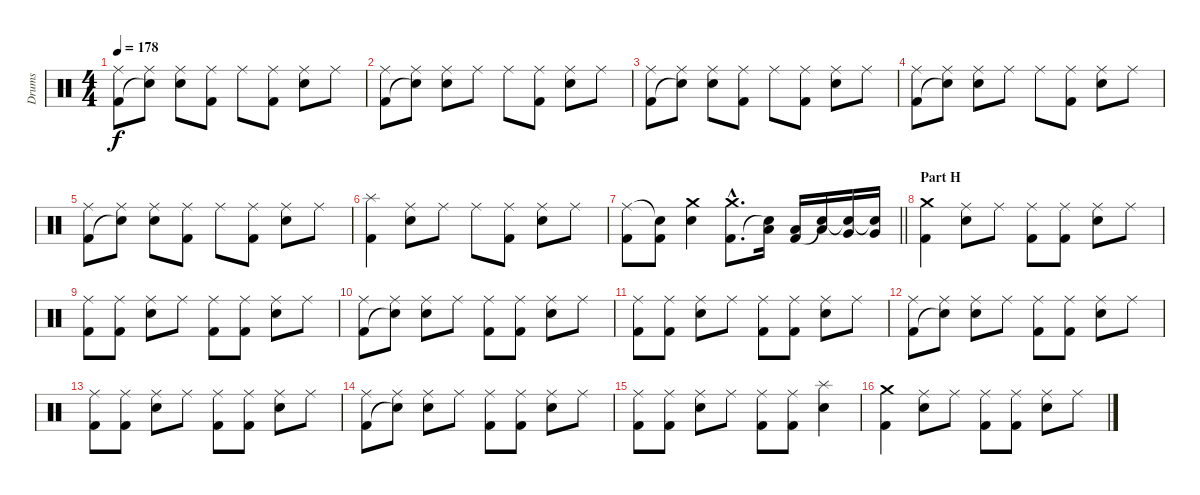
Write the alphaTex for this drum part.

\track ("Drums" "Drums") {instrument percussion}
\staff {score}
\articulation defaults
\ts (4 4)
\tempo 178
\clef neutral
\ks c
("Ride (middle)" "Kick (hit) 2").8{dy f} ("Ride (middle)" "Snare (hit)"{t}).8 ("Ride (middle)" "Electric Snare (hit)").8 ("Ride (middle)" "Kick (hit) 2").8 "Ride (middle)".8 ("Ride (middle)" "Kick (hit) 2").8 ("Ride (middle)" "Electric Snare (hit)").8 "Ride (middle)".8 |
("Ride (middle)" "Kick (hit) 2").8 ("Ride (middle)" "Snare (hit)"{t}).8 ("Ride (middle)" "Electric Snare (hit)").8 "Ride (middle)".8 "Ride (middle)".8 ("Ride (middle)" "Kick (hit) 2").8 ("Ride (middle)" "Electric Snare (hit)").8 "Ride (middle)".8 |
("Ride (middle)" "Kick (hit) 2").8 ("Ride (middle)" "Snare (hit)"{t}).8 ("Ride (middle)" "Electric Snare (hit)").8 ("Ride (middle)" "Kick (hit) 2").8 "Ride (middle)".8 ("Ride (middle)" "Kick (hit) 2").8 ("Ride (middle)" "Electric Snare (hit)").8 "Ride (middle)".8 |
("Ride (middle)" "Kick (hit) 2").8 ("Ride (middle)" "Snare (hit)"{t}).8 ("Ride (middle)" "Electric Snare (hit)").8 "Ride (middle)".8 "Ride (middle)".8 ("Ride (middle)" "Kick (hit) 2").8 ("Ride (middle)" "Electric Snare (hit)").8 "Ride (middle)".8 |
("Ride (middle)" "Kick (hit) 2").8 ("Ride (middle)" "Snare (hit)"{t}).8 ("Ride (middle)" "Electric Snare (hit)").8 ("Ride (middle)" "Kick (hit) 2").8 "Ride (middle)".8 ("Ride (middle)" "Kick (hit) 2").8 ("Ride (middle)" "Electric Snare (hit)").8 "Ride (middle)".8 |
("Splash (hit)" "Kick (hit) 2").4 ("Ride (middle)" "Electric Snare (hit)").8 "Ride (middle)".8 "Ride (middle)".8 ("Ride (middle)" "Kick (hit) 2").8 ("Ride (middle)" "Electric Snare (hit)").8 "Ride (middle)".8 |
\barLineRight lightlight
("Ride (middle)" "Kick (hit) 2").8 ("Snare (hit)"{t} "Kick (hit) 2").8 ("Crash medium (hit)" "Electric Snare (hit)").4 ("Crash medium (hit)"{hac} "Kick (hit) 2"{hac}).8{d} ("Low Tom (hit)" "Snare (hit)"{t}).16 ("Low Tom (hit)" "Kick (hit) 2").16 ("Low Tom (hit)" "Snare (hit)"{t}).16 ("Very Low Tom (hit)" "Snare (hit)"{t}).16 ("Very Low Tom (hit)" "Snare (hit)"{t}).16 |
\section ("" "Part H")
("Crash medium (hit)" "Kick (hit) 2").4 ("Ride (middle)" "Electric Snare (hit)").8 "Ride (middle)".8 ("Ride (middle)" "Kick (hit) 2").8 ("Ride (middle)" "Kick (hit) 2").8 ("Ride (middle)" "Electric Snare (hit)").8 "Ride (middle)".8 |
("Ride (middle)" "Kick (hit) 2").8 ("Ride (middle)" "Kick (hit) 2").8 ("Ride (middle)" "Electric Snare (hit)").8 "Ride (middle)".8 ("Ride (middle)" "Kick (hit) 2").8 ("Ride (middle)" "Kick (hit) 2").8 ("Ride (middle)" "Electric Snare (hit)").8 "Ride (middle)".8 |
("Ride (middle)" "Kick (hit) 2").8 ("Ride (middle)" "Snare (hit)"{t}).8 ("Ride (middle)" "Electric Snare (hit)").8 "Ride (middle)".8 ("Ride (middle)" "Kick (hit) 2").8 ("Ride (middle)" "Kick (hit) 2").8 ("Ride (middle)" "Electric Snare (hit)").8 "Ride (middle)".8 |
("Ride (middle)" "Kick (hit) 2").8 ("Ride (middle)" "Kick (hit) 2").8 ("Ride (middle)" "Electric Snare (hit)").8 "Ride (middle)".8 ("Ride (middle)" "Kick (hit) 2").8 ("Ride (middle)" "Kick (hit) 2").8 ("Ride (middle)" "Electric Snare (hit)").8 "Ride (middle)".8 |
("Ride (middle)" "Kick (hit) 2").8 ("Ride (middle)" "Snare (hit)"{t}).8 ("Ride (middle)" "Electric Snare (hit)").8 "Ride (middle)".8 ("Ride (middle)" "Kick (hit) 2").8 ("Ride (middle)" "Kick (hit) 2").8 ("Ride (middle)" "Electric Snare (hit)").8 "Ride (middle)".8 |
("Ride (middle)" "Kick (hit) 2").8 ("Ride (middle)" "Kick (hit) 2").8 ("Ride (middle)" "Electric Snare (hit)").8 "Ride (middle)".8 ("Ride (middle)" "Kick (hit) 2").8 ("Ride (middle)" "Kick (hit) 2").8 ("Ride (middle)" "Electric Snare (hit)").8 "Ride (middle)".8 |
("Ride (middle)" "Kick (hit) 2").8 ("Ride (middle)" "Snare (hit)"{t}).8 ("Ride (middle)" "Electric Snare (hit)").8 "Ride (middle)".8 ("Ride (middle)" "Kick (hit) 2").8 ("Ride (middle)" "Kick (hit) 2").8 ("Ride (middle)" "Electric Snare (hit)").8 "Ride (middle)".8 |
("Ride (middle)" "Kick (hit) 2").8 ("Ride (middle)" "Kick (hit) 2").8 ("Ride (middle)" "Electric Snare (hit)").8 "Ride (middle)".8 ("Ride (middle)" "Kick (hit) 2").8 ("Ride (middle)" "Kick (hit) 2").8 ("Splash (hit)" "Electric Snare (hit)").4 |
("Crash medium (hit)" "Kick (hit) 2").4 ("Ride (middle)" "Electric Snare (hit)").8 "Ride (middle)".8 ("Ride (middle)" "Kick (hit) 2").8 ("Ride (middle)" "Kick (hit) 2").8 ("Ride (middle)" "Electric Snare (hit)").8 "Ride (middle)".8
